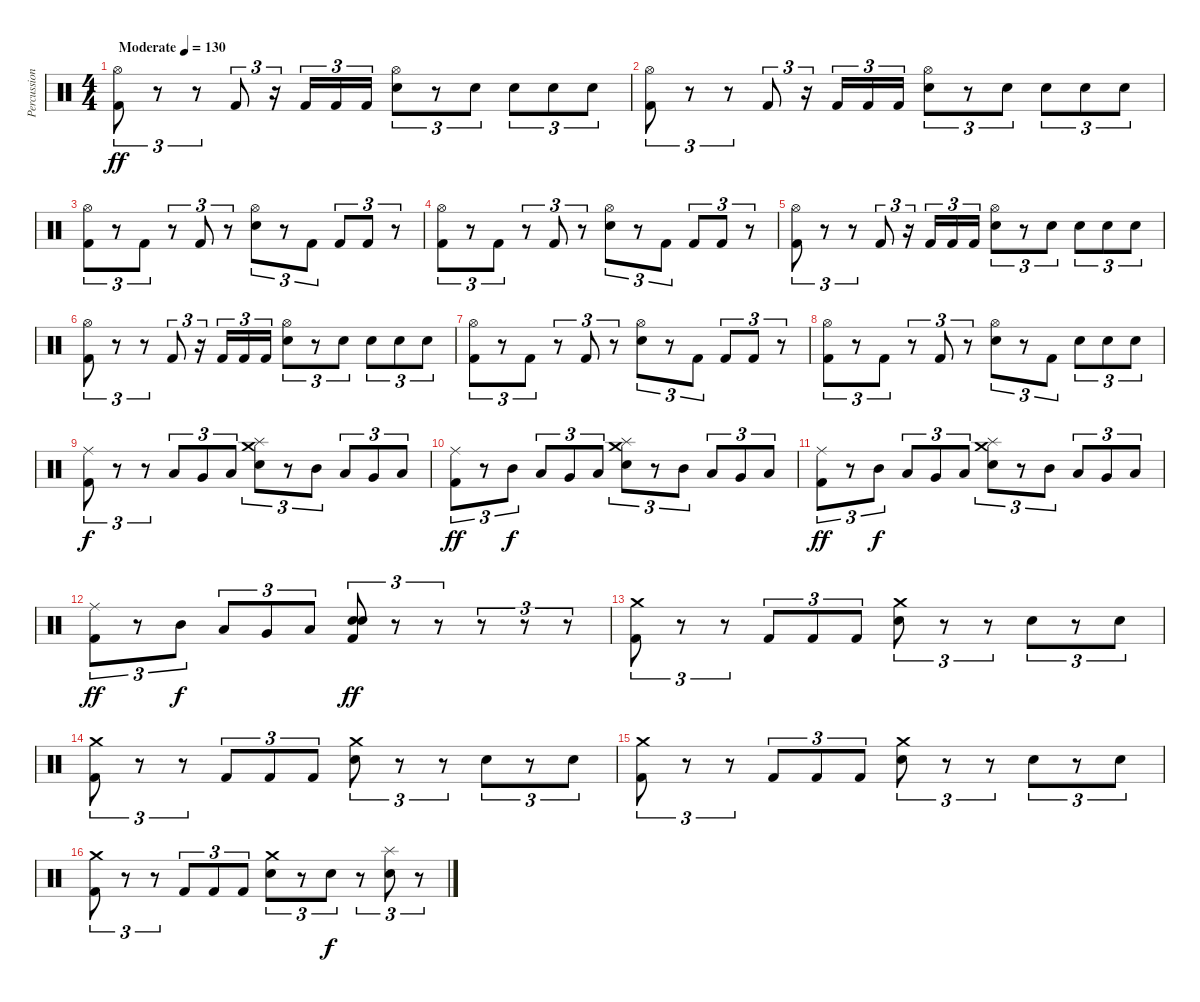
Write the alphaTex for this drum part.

\track ("Percussion" "Percussion") {instrument percussion bank 95}
\staff {score}
\articulation defaults
\ts (4 4)
\tempo (130 "Moderate")
\clef neutral
\ks c
("Hi-Hat (open)" "Kick (hit) 2").8{tu (3 2) dy ff} r.8{tu (3 2)} r.8{tu (3 2)} "Kick (hit) 2".8{tu (3 2)} r.16{tu (3 2)} "Kick (hit) 2".16{tu (3 2)} "Kick (hit) 2".16{tu (3 2)} "Kick (hit) 2".16{tu (3 2)} ("Hi-Hat (open)" "Snare (hit) 2").8{tu (3 2)} r.8{tu (3 2)} "Snare (hit) 2".8{tu (3 2)} "Snare (hit) 2".8{tu (3 2)} "Snare (hit) 2".8{tu (3 2)} "Snare (hit) 2".8{tu (3 2)} |
("Hi-Hat (open)" "Kick (hit) 2").8{tu (3 2)} r.8{tu (3 2)} r.8{tu (3 2)} "Kick (hit) 2".8{tu (3 2)} r.16{tu (3 2)} "Kick (hit) 2".16{tu (3 2)} "Kick (hit) 2".16{tu (3 2)} "Kick (hit) 2".16{tu (3 2)} ("Hi-Hat (open)" "Snare (hit) 2").8{tu (3 2)} r.8{tu (3 2)} "Snare (hit) 2".8{tu (3 2)} "Snare (hit) 2".8{tu (3 2)} "Snare (hit) 2".8{tu (3 2)} "Snare (hit) 2".8{tu (3 2)} |
("Hi-Hat (open)" "Kick (hit) 2").8{tu (3 2)} r.8{tu (3 2)} "Kick (hit) 2".8{tu (3 2)} r.8{tu (3 2)} "Kick (hit) 2".8{tu (3 2)} r.8{tu (3 2)} ("Hi-Hat (open)" "Snare (hit) 2").8{tu (3 2)} r.8{tu (3 2)} "Kick (hit) 2".8{tu (3 2)} "Kick (hit) 2".8{tu (3 2)} "Kick (hit) 2".8{tu (3 2)} r.8{tu (3 2)} |
("Hi-Hat (open)" "Kick (hit) 2").8{tu (3 2)} r.8{tu (3 2)} "Kick (hit) 2".8{tu (3 2)} r.8{tu (3 2)} "Kick (hit) 2".8{tu (3 2)} r.8{tu (3 2)} ("Hi-Hat (open)" "Snare (hit) 2").8{tu (3 2)} r.8{tu (3 2)} "Kick (hit) 2".8{tu (3 2)} "Kick (hit) 2".8{tu (3 2)} "Kick (hit) 2".8{tu (3 2)} r.8{tu (3 2)} |
("Hi-Hat (open)" "Kick (hit) 2").8{tu (3 2)} r.8{tu (3 2)} r.8{tu (3 2)} "Kick (hit) 2".8{tu (3 2)} r.16{tu (3 2)} "Kick (hit) 2".16{tu (3 2)} "Kick (hit) 2".16{tu (3 2)} "Kick (hit) 2".16{tu (3 2)} ("Hi-Hat (open)" "Snare (hit) 2").8{tu (3 2)} r.8{tu (3 2)} "Snare (hit) 2".8{tu (3 2)} "Snare (hit) 2".8{tu (3 2)} "Snare (hit) 2".8{tu (3 2)} "Snare (hit) 2".8{tu (3 2)} |
("Hi-Hat (open)" "Kick (hit) 2").8{tu (3 2)} r.8{tu (3 2)} r.8{tu (3 2)} "Kick (hit) 2".8{tu (3 2)} r.16{tu (3 2)} "Kick (hit) 2".16{tu (3 2)} "Kick (hit) 2".16{tu (3 2)} "Kick (hit) 2".16{tu (3 2)} ("Hi-Hat (open)" "Snare (hit) 2").8{tu (3 2)} r.8{tu (3 2)} "Snare (hit) 2".8{tu (3 2)} "Snare (hit) 2".8{tu (3 2)} "Snare (hit) 2".8{tu (3 2)} "Snare (hit) 2".8{tu (3 2)} |
("Hi-Hat (open)" "Kick (hit) 2").8{tu (3 2)} r.8{tu (3 2)} "Kick (hit) 2".8{tu (3 2)} r.8{tu (3 2)} "Kick (hit) 2".8{tu (3 2)} r.8{tu (3 2)} ("Hi-Hat (open)" "Snare (hit) 2").8{tu (3 2)} r.8{tu (3 2)} "Kick (hit) 2".8{tu (3 2)} "Kick (hit) 2".8{tu (3 2)} "Kick (hit) 2".8{tu (3 2)} r.8{tu (3 2)} |
("Hi-Hat (open)" "Kick (hit) 2").8{tu (3 2)} r.8{tu (3 2)} "Kick (hit) 2".8{tu (3 2)} r.8{tu (3 2)} "Kick (hit) 2".8{tu (3 2)} r.8{tu (3 2)} ("Hi-Hat (open)" "Snare (hit) 2").8{tu (3 2)} r.8{tu (3 2)} "Kick (hit) 2".8{tu (3 2)} "Snare (hit) 2".8{tu (3 2)} "Snare (hit) 2".8{tu (3 2)} "Snare (hit) 2".8{tu (3 2)} |
("Ride (middle)" "Kick (hit) 2").8{tu (3 2) dy f} r.8{tu (3 2)} r.8{tu (3 2)} "Low Tom (hit)".8{tu (3 2)} "Very Low Tom (hit)".8{tu (3 2)} "Low Floor Tom (hit)".8{tu (3 2)} ("Splash (hit)" "Crash medium (hit)" "Snare (hit) 2").8{tu (3 2)} r.8{tu (3 2)} "Mid Tom (hit)".8{tu (3 2)} "Low Tom (hit)".8{tu (3 2)} "Very Low Tom (hit)".8{tu (3 2)} "Low Floor Tom (hit)".8{tu (3 2)} |
("Ride (middle)" "Kick (hit) 2").8{tu (3 2) dy ff} r.8{tu (3 2)} "Mid Tom (hit)".8{tu (3 2) dy f} "Low Tom (hit)".8{tu (3 2)} "Very Low Tom (hit)".8{tu (3 2)} "Low Floor Tom (hit)".8{tu (3 2)} ("Splash (hit)" "Crash medium (hit)" "Snare (hit) 2").8{tu (3 2)} r.8{tu (3 2)} "Mid Tom (hit)".8{tu (3 2)} "Low Tom (hit)".8{tu (3 2)} "Very Low Tom (hit)".8{tu (3 2)} "Low Floor Tom (hit)".8{tu (3 2)} |
("Ride (middle)" "Kick (hit) 2").8{tu (3 2) dy ff} r.8{tu (3 2)} "Mid Tom (hit)".8{tu (3 2) dy f} "Low Tom (hit)".8{tu (3 2)} "Very Low Tom (hit)".8{tu (3 2)} "Low Floor Tom (hit)".8{tu (3 2)} ("Splash (hit)" "Crash medium (hit)" "Snare (hit) 2").8{tu (3 2)} r.8{tu (3 2)} "Mid Tom (hit)".8{tu (3 2)} "Low Tom (hit)".8{tu (3 2)} "Very Low Tom (hit)".8{tu (3 2)} "Low Floor Tom (hit)".8{tu (3 2)} |
("Ride (middle)" "Kick (hit) 2").8{tu (3 2) dy ff} r.8{tu (3 2)} "Mid Tom (hit)".8{tu (3 2) dy f} "Low Tom (hit)".8{tu (3 2)} "Very Low Tom (hit)".8{tu (3 2)} "Low Floor Tom (hit)".8{tu (3 2)} ("Snare (hit) 2" "Snare (hit) 2" "Kick (hit) 2").8{tu (3 2) dy ff} r.8{tu (3 2)} r.8{tu (3 2)} r.8{tu (3 2)} r.8{tu (3 2)} r.8{tu (3 2)} |
("Crash medium (hit)" "Kick (hit) 2").8{tu (3 2)} r.8{tu (3 2)} r.8{tu (3 2)} "Kick (hit) 2".8{tu (3 2)} "Kick (hit) 2".8{tu (3 2)} "Kick (hit) 2".8{tu (3 2)} ("Crash medium (hit)" "Snare (hit) 2").8{tu (3 2)} r.8{tu (3 2)} r.8{tu (3 2)} "Snare (hit) 2".8{tu (3 2)} r.8{tu (3 2)} "Snare (hit) 2".8{tu (3 2)} |
("Crash medium (hit)" "Kick (hit) 2").8{tu (3 2)} r.8{tu (3 2)} r.8{tu (3 2)} "Kick (hit) 2".8{tu (3 2)} "Kick (hit) 2".8{tu (3 2)} "Kick (hit) 2".8{tu (3 2)} ("Crash medium (hit)" "Snare (hit) 2").8{tu (3 2)} r.8{tu (3 2)} r.8{tu (3 2)} "Snare (hit) 2".8{tu (3 2)} r.8{tu (3 2)} "Snare (hit) 2".8{tu (3 2)} |
("Crash medium (hit)" "Kick (hit) 2").8{tu (3 2)} r.8{tu (3 2)} r.8{tu (3 2)} "Kick (hit) 2".8{tu (3 2)} "Kick (hit) 2".8{tu (3 2)} "Kick (hit) 2".8{tu (3 2)} ("Crash medium (hit)" "Snare (hit) 2").8{tu (3 2)} r.8{tu (3 2)} r.8{tu (3 2)} "Snare (hit) 2".8{tu (3 2)} r.8{tu (3 2)} "Snare (hit) 2".8{tu (3 2)} |
("Crash medium (hit)" "Kick (hit) 2").8{tu (3 2)} r.8{tu (3 2)} r.8{tu (3 2)} "Kick (hit) 2".8{tu (3 2)} "Kick (hit) 2".8{tu (3 2)} "Kick (hit) 2".8{tu (3 2)} ("Crash medium (hit)" "Snare (hit) 2").8{tu (3 2)} r.8{tu (3 2)} "Snare (hit) 2".8{tu (3 2) dy f} r.8{tu (3 2)} ("Splash (hit)" "Snare (hit) 2").8{tu (3 2)} r.8{tu (3 2)}
